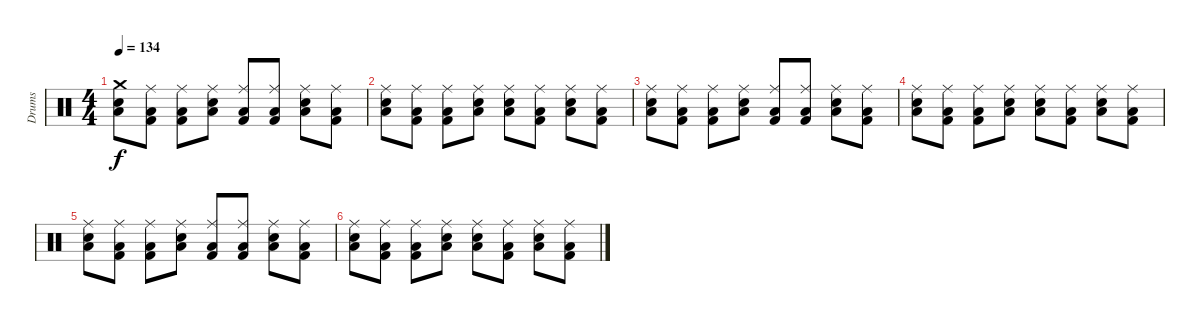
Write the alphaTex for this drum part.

\track ("Drums" "Drums") {instrument percussion}
\staff {score}
\articulation defaults
\ts (4 4)
\tempo 134
\clef neutral
\ks c
("Crash medium (hit)" "Low Tom (hit)" "Snare (hit) 2").8{dy f volume 10} ("Ride (middle)" "Low Tom (hit)" "Kick (hit) 2").8 ("Ride (middle)" "Low Tom (hit)" "Kick (hit) 2").8 ("Ride (middle)" "Low Tom (hit)" "Snare (hit) 2").8 ("Ride (middle)" "Low Tom (hit)" "Kick (hit) 2").8 ("Ride (middle)" "Low Tom (hit)" "Kick (hit) 2").8 ("Ride (middle)" "Low Tom (hit)" "Snare (hit) 2").8 ("Ride (middle)" "Low Tom (hit)" "Kick (hit) 2").8 |
("Ride (middle)" "Low Tom (hit)" "Snare (hit) 2").8 ("Ride (middle)" "Low Tom (hit)" "Kick (hit) 2").8 ("Ride (middle)" "Low Tom (hit)" "Kick (hit) 2").8 ("Ride (middle)" "Low Tom (hit)" "Snare (hit) 2").8 ("Ride (middle)" "Low Tom (hit)" "Snare (hit) 2").8 ("Ride (middle)" "Low Tom (hit)" "Kick (hit) 2").8 ("Ride (middle)" "Low Tom (hit)" "Snare (hit) 2").8 ("Ride (middle)" "Low Tom (hit)" "Kick (hit) 2").8 |
("Ride (middle)" "Low Tom (hit)" "Snare (hit) 2").8{volume 10} ("Ride (middle)" "Low Tom (hit)" "Kick (hit) 2").8 ("Ride (middle)" "Low Tom (hit)" "Kick (hit) 2").8 ("Ride (middle)" "Low Tom (hit)" "Snare (hit) 2").8 ("Ride (middle)" "Low Tom (hit)" "Kick (hit) 2").8 ("Ride (middle)" "Low Tom (hit)" "Kick (hit) 2").8 ("Ride (middle)" "Low Tom (hit)" "Snare (hit) 2").8 ("Ride (middle)" "Low Tom (hit)" "Kick (hit) 2").8 |
("Ride (middle)" "Low Tom (hit)" "Snare (hit) 2").8 ("Ride (middle)" "Low Tom (hit)" "Kick (hit) 2").8 ("Ride (middle)" "Low Tom (hit)" "Kick (hit) 2").8 ("Ride (middle)" "Low Tom (hit)" "Snare (hit) 2").8 ("Ride (middle)" "Low Tom (hit)" "Snare (hit) 2").8 ("Ride (middle)" "Low Tom (hit)" "Kick (hit) 2").8 ("Ride (middle)" "Low Tom (hit)" "Snare (hit) 2").8 ("Ride (middle)" "Low Tom (hit)" "Kick (hit) 2").8 |
("Ride (middle)" "Low Tom (hit)" "Snare (hit) 2").8{volume 10} ("Ride (middle)" "Low Tom (hit)" "Kick (hit) 2").8 ("Ride (middle)" "Low Tom (hit)" "Kick (hit) 2").8 ("Ride (middle)" "Low Tom (hit)" "Snare (hit) 2").8 ("Ride (middle)" "Low Tom (hit)" "Kick (hit) 2").8 ("Ride (middle)" "Low Tom (hit)" "Kick (hit) 2").8 ("Ride (middle)" "Low Tom (hit)" "Snare (hit) 2").8 ("Ride (middle)" "Low Tom (hit)" "Kick (hit) 2").8 |
("Ride (middle)" "Low Tom (hit)" "Snare (hit) 2").8 ("Ride (middle)" "Low Tom (hit)" "Kick (hit) 2").8 ("Ride (middle)" "Low Tom (hit)" "Kick (hit) 2").8 ("Ride (middle)" "Low Tom (hit)" "Snare (hit) 2").8 ("Ride (middle)" "Low Tom (hit)" "Snare (hit) 2").8 ("Ride (middle)" "Low Tom (hit)" "Kick (hit) 2").8 ("Ride (middle)" "Low Tom (hit)" "Snare (hit) 2").8 ("Ride (middle)" "Low Tom (hit)" "Kick (hit) 2").8
